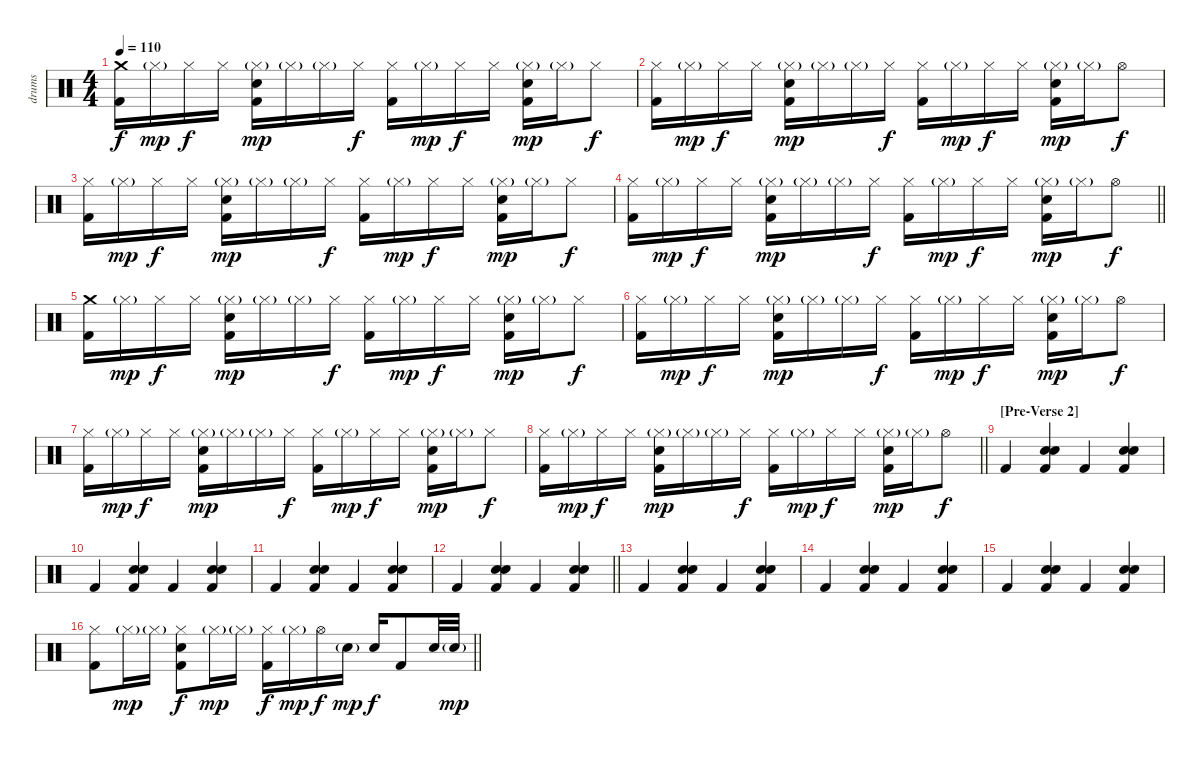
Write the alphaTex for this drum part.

\track ("drums" "drums") {instrument percussion}
\staff {score}
\articulation defaults
\ts (4 4)
\tempo 110
\clef neutral
\ks c
("Crash medium (hit)" "Kick (hit) 2").16{dy f} "Hi-Hat (closed)"{g}.16{dy mp} "Hi-Hat (closed)".16{dy f} "Hi-Hat (closed)".16 ("Hi-Hat (closed)"{g} "Electric Snare (hit)" "Kick (hit) 2").16{dy mp} "Hi-Hat (closed)"{g}.16 "Hi-Hat (closed)"{g}.16 "Hi-Hat (closed)".16{dy f} ("Hi-Hat (closed)" "Kick (hit) 2").16 "Hi-Hat (closed)"{g}.16{dy mp} "Hi-Hat (closed)".16{dy f} "Hi-Hat (closed)".16 ("Hi-Hat (closed)"{g} "Electric Snare (hit)" "Kick (hit) 2").16{dy mp} "Hi-Hat (closed)"{g}.16 "Hi-Hat (closed)".8{dy f} |
("Hi-Hat (closed)" "Kick (hit) 2").16 "Hi-Hat (closed)"{g}.16{dy mp} "Hi-Hat (closed)".16{dy f} "Hi-Hat (closed)".16 ("Hi-Hat (closed)"{g} "Electric Snare (hit)" "Kick (hit) 2").16{dy mp} "Hi-Hat (closed)"{g}.16 "Hi-Hat (closed)"{g}.16 "Hi-Hat (closed)".16{dy f} ("Hi-Hat (closed)" "Kick (hit) 2").16 "Hi-Hat (closed)"{g}.16{dy mp} "Hi-Hat (closed)".16{dy f} "Hi-Hat (closed)".16 ("Hi-Hat (closed)"{g} "Electric Snare (hit)" "Kick (hit) 2").16{dy mp} "Hi-Hat (closed)"{g}.16 "Hi-Hat (open)".8{dy f} |
("Hi-Hat (closed)" "Kick (hit) 2").16 "Hi-Hat (closed)"{g}.16{dy mp} "Hi-Hat (closed)".16{dy f} "Hi-Hat (closed)".16 ("Hi-Hat (closed)"{g} "Electric Snare (hit)" "Kick (hit) 2").16{dy mp} "Hi-Hat (closed)"{g}.16 "Hi-Hat (closed)"{g}.16 "Hi-Hat (closed)".16{dy f} ("Hi-Hat (closed)" "Kick (hit) 2").16 "Hi-Hat (closed)"{g}.16{dy mp} "Hi-Hat (closed)".16{dy f} "Hi-Hat (closed)".16 ("Hi-Hat (closed)"{g} "Electric Snare (hit)" "Kick (hit) 2").16{dy mp} "Hi-Hat (closed)"{g}.16 "Hi-Hat (closed)".8{dy f} |
\barLineRight lightlight
("Hi-Hat (closed)" "Kick (hit) 2").16 "Hi-Hat (closed)"{g}.16{dy mp} "Hi-Hat (closed)".16{dy f} "Hi-Hat (closed)".16 ("Hi-Hat (closed)"{g} "Electric Snare (hit)" "Kick (hit) 2").16{dy mp} "Hi-Hat (closed)"{g}.16 "Hi-Hat (closed)"{g}.16 "Hi-Hat (closed)".16{dy f} ("Hi-Hat (closed)" "Kick (hit) 2").16 "Hi-Hat (closed)"{g}.16{dy mp} "Hi-Hat (closed)".16{dy f} "Hi-Hat (closed)".16 ("Hi-Hat (closed)"{g} "Electric Snare (hit)" "Kick (hit) 2").16{dy mp} "Hi-Hat (closed)"{g}.16 "Hi-Hat (open)".8{dy f} |
\section ("" "")
("Crash medium (hit)" "Kick (hit) 2").16 "Hi-Hat (closed)"{g}.16{dy mp} "Hi-Hat (closed)".16{dy f} "Hi-Hat (closed)".16 ("Hi-Hat (closed)"{g} "Electric Snare (hit)" "Kick (hit) 2").16{dy mp} "Hi-Hat (closed)"{g}.16 "Hi-Hat (closed)"{g}.16 "Hi-Hat (closed)".16{dy f} ("Hi-Hat (closed)" "Kick (hit) 2").16 "Hi-Hat (closed)"{g}.16{dy mp} "Hi-Hat (closed)".16{dy f} "Hi-Hat (closed)".16 ("Hi-Hat (closed)"{g} "Electric Snare (hit)" "Kick (hit) 2").16{dy mp} "Hi-Hat (closed)"{g}.16 "Hi-Hat (closed)".8{dy f} |
("Hi-Hat (closed)" "Kick (hit) 2").16 "Hi-Hat (closed)"{g}.16{dy mp} "Hi-Hat (closed)".16{dy f} "Hi-Hat (closed)".16 ("Hi-Hat (closed)"{g} "Electric Snare (hit)" "Kick (hit) 2").16{dy mp} "Hi-Hat (closed)"{g}.16 "Hi-Hat (closed)"{g}.16 "Hi-Hat (closed)".16{dy f} ("Hi-Hat (closed)" "Kick (hit) 2").16 "Hi-Hat (closed)"{g}.16{dy mp} "Hi-Hat (closed)".16{dy f} "Hi-Hat (closed)".16 ("Hi-Hat (closed)"{g} "Electric Snare (hit)" "Kick (hit) 2").16{dy mp} "Hi-Hat (closed)"{g}.16 "Hi-Hat (open)".8{dy f} |
("Hi-Hat (closed)" "Kick (hit) 2").16 "Hi-Hat (closed)"{g}.16{dy mp} "Hi-Hat (closed)".16{dy f} "Hi-Hat (closed)".16 ("Hi-Hat (closed)"{g} "Electric Snare (hit)" "Kick (hit) 2").16{dy mp} "Hi-Hat (closed)"{g}.16 "Hi-Hat (closed)"{g}.16 "Hi-Hat (closed)".16{dy f} ("Hi-Hat (closed)" "Kick (hit) 2").16 "Hi-Hat (closed)"{g}.16{dy mp} "Hi-Hat (closed)".16{dy f} "Hi-Hat (closed)".16 ("Hi-Hat (closed)"{g} "Electric Snare (hit)" "Kick (hit) 2").16{dy mp} "Hi-Hat (closed)"{g}.16 "Hi-Hat (closed)".8{dy f} |
\barLineRight lightlight
("Hi-Hat (closed)" "Kick (hit) 2").16 "Hi-Hat (closed)"{g}.16{dy mp} "Hi-Hat (closed)".16{dy f} "Hi-Hat (closed)".16 ("Hi-Hat (closed)"{g} "Electric Snare (hit)" "Kick (hit) 2").16{dy mp} "Hi-Hat (closed)"{g}.16 "Hi-Hat (closed)"{g}.16 "Hi-Hat (closed)".16{dy f} ("Hi-Hat (closed)" "Kick (hit) 2").16 "Hi-Hat (closed)"{g}.16{dy mp} "Hi-Hat (closed)".16{dy f} "Hi-Hat (closed)".16 ("Hi-Hat (closed)"{g} "Electric Snare (hit)" "Kick (hit) 2").16{dy mp} "Hi-Hat (closed)"{g}.16 "Hi-Hat (open)".8{dy f} |
\section ("" "[Pre-Verse 2]")
"Kick (hit) 2".4 ("Hand Clap (hit)" "Electric Snare (hit)" "Kick (hit) 2").4 "Kick (hit) 2".4 ("Hand Clap (hit)" "Electric Snare (hit)" "Kick (hit) 2").4 |
"Kick (hit) 2".4 ("Hand Clap (hit)" "Electric Snare (hit)" "Kick (hit) 2").4 "Kick (hit) 2".4 ("Hand Clap (hit)" "Electric Snare (hit)" "Kick (hit) 2").4 |
"Kick (hit) 2".4 ("Hand Clap (hit)" "Electric Snare (hit)" "Kick (hit) 2").4 "Kick (hit) 2".4 ("Hand Clap (hit)" "Electric Snare (hit)" "Kick (hit) 2").4 |
\barLineRight lightlight "Kick (hit) 2".4
("Hand Clap (hit)" "Electric Snare (hit)" "Kick (hit) 2").4 "Kick (hit) 2".4 ("Hand Clap (hit)" "Electric Snare (hit)" "Kick (hit) 2").4 |
"Kick (hit) 2".4 ("Hand Clap (hit)" "Electric Snare (hit)" "Kick (hit) 2").4 "Kick (hit) 2".4 ("Hand Clap (hit)" "Electric Snare (hit)" "Kick (hit) 2").4 |
"Kick (hit) 2".4 ("Hand Clap (hit)" "Electric Snare (hit)" "Kick (hit) 2").4 "Kick (hit) 2".4 ("Hand Clap (hit)" "Electric Snare (hit)" "Kick (hit) 2").4 |
"Kick (hit) 2".4 ("Hand Clap (hit)" "Electric Snare (hit)" "Kick (hit) 2").4 "Kick (hit) 2".4 ("Hand Clap (hit)" "Electric Snare (hit)" "Kick (hit) 2").4 |
\barLineRight lightlight
("Hi-Hat (closed)" "Kick (hit) 2").8 "Hi-Hat (closed)"{g}.16{dy mp} "Hi-Hat (closed)"{g}.16 ("Hi-Hat (closed)" "Hand Clap (hit)" "Kick (hit) 2").8{dy f} "Hi-Hat (closed)"{g}.16{dy mp} "Hi-Hat (closed)"{g}.16 ("Hi-Hat (closed)" "Kick (hit) 2").16{dy f} "Hi-Hat (closed)"{g}.16{dy mp} "Hi-Hat (open)".16{dy f} "Electric Snare (hit)"{g}.16{dy mp} "Electric Snare (hit)".16{dy f} "Kick (hit) 2".8 "Electric Snare (hit)".32 "Electric Snare (hit)"{g}.32{dy mp}
